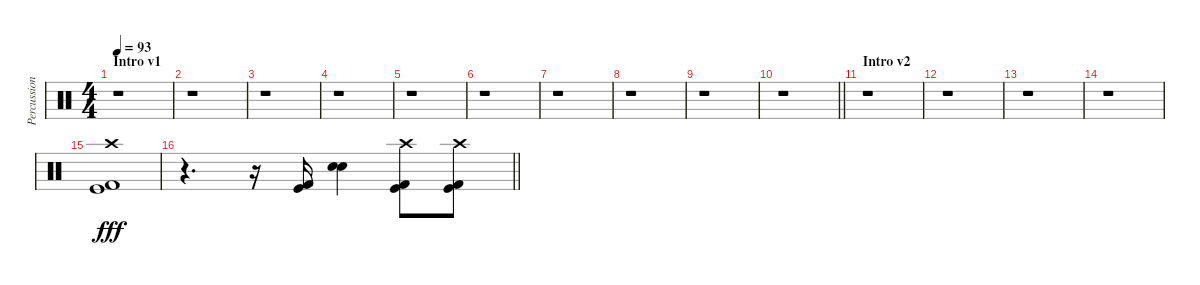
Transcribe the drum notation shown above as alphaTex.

\track ("Percussion" "Percussion") {instrument percussion}
\staff {score}
\articulation defaults
\ts (4 4)
\section ("" "Intro v1")
\tempo 93
\clef neutral
\ks c
r.1{dy fff} |
r.1 |
r.1 |
r.1 |
r.1 |
r.1 |
r.1 |
r.1 |
r.1 |
\barLineRight lightlight
r.1 |
\section ("" "Intro v2")
r.1 |
r.1 |
r.1 |
r.1 |
("Crash high (hit)" "Kick (hit)" "Kick (hit) 2").1 |
\barLineRight lightlight
r.4{d} r.16 ("Kick (hit)" "Kick (hit) 2").16 ("Electric Snare (hit)" "Snare (hit) 2").4{bd 120} ("Crash high (hit)" "Kick (hit)" "Kick (hit) 2").8 ("Crash high (hit)" "Kick (hit)" "Kick (hit) 2").8
